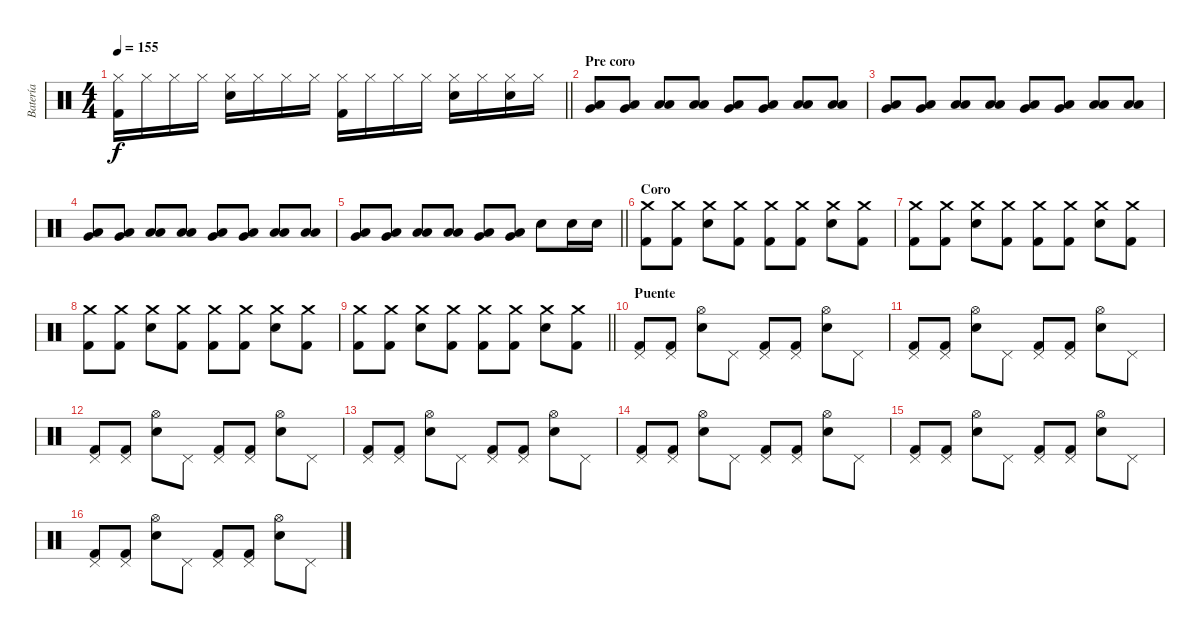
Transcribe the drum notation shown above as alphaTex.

\track ("Batería" "Batería") {instrument percussion}
\staff {score}
\articulation defaults
\ts (4 4)
\tempo 155
\clef neutral
\barLineRight lightlight
\ks c
("Hi-Hat (closed)" "Kick (hit) 2").16{dy f} "Hi-Hat (closed)".16 "Hi-Hat (closed)".16 "Hi-Hat (closed)".16 ("Hi-Hat (closed)" "Snare (hit) 2").16 "Hi-Hat (closed)".16 "Hi-Hat (closed)".16 "Hi-Hat (closed)".16 ("Hi-Hat (closed)" "Kick (hit) 2").16 "Hi-Hat (closed)".16 "Hi-Hat (closed)".16 "Hi-Hat (closed)".16 ("Hi-Hat (closed)" "Snare (hit) 2").16 "Hi-Hat (closed)".16 ("Hi-Hat (closed)" "Snare (hit) 2").16 "Hi-Hat (closed)".16 |
\section ("" "Pre coro")
("Very Low Tom (hit)" "Low Floor Tom (hit)").8 ("Very Low Tom (hit)" "Low Floor Tom (hit)").8 ("Low Tom (hit)" "Low Floor Tom (hit)").8 ("Low Tom (hit)" "Low Floor Tom (hit)").8 ("Very Low Tom (hit)" "Low Floor Tom (hit)").8 ("Very Low Tom (hit)" "Low Floor Tom (hit)").8 ("Low Tom (hit)" "Low Floor Tom (hit)").8 ("Low Tom (hit)" "Low Floor Tom (hit)").8 |
("Very Low Tom (hit)" "Low Floor Tom (hit)").8 ("Very Low Tom (hit)" "Low Floor Tom (hit)").8 ("Low Tom (hit)" "Low Floor Tom (hit)").8 ("Low Tom (hit)" "Low Floor Tom (hit)").8 ("Very Low Tom (hit)" "Low Floor Tom (hit)").8 ("Very Low Tom (hit)" "Low Floor Tom (hit)").8 ("Low Tom (hit)" "Low Floor Tom (hit)").8 ("Low Tom (hit)" "Low Floor Tom (hit)").8 |
("Very Low Tom (hit)" "Low Floor Tom (hit)").8 ("Very Low Tom (hit)" "Low Floor Tom (hit)").8 ("Low Tom (hit)" "Low Floor Tom (hit)").8 ("Low Tom (hit)" "Low Floor Tom (hit)").8 ("Very Low Tom (hit)" "Low Floor Tom (hit)").8 ("Very Low Tom (hit)" "Low Floor Tom (hit)").8 ("Low Tom (hit)" "Low Floor Tom (hit)").8 ("Low Tom (hit)" "Low Floor Tom (hit)").8 |
\barLineRight lightlight
("Very Low Tom (hit)" "Low Floor Tom (hit)").8 ("Very Low Tom (hit)" "Low Floor Tom (hit)").8 ("Low Tom (hit)" "Low Floor Tom (hit)").8 ("Low Tom (hit)" "Low Floor Tom (hit)").8 ("Very Low Tom (hit)" "Low Floor Tom (hit)").8 ("Very Low Tom (hit)" "Low Floor Tom (hit)").8 "Snare (hit) 2".8 "Snare (hit) 2".16 "Snare (hit) 2".16 |
\section ("" "Coro")
("Crash medium (hit)" "Kick (hit) 2").8 ("Crash medium (hit)" "Kick (hit) 2").8 ("Crash medium (hit)" "Snare (hit) 2").8 ("Crash medium (hit)" "Kick (hit) 2").8 ("Crash medium (hit)" "Kick (hit) 2").8 ("Crash medium (hit)" "Kick (hit) 2").8 ("Crash medium (hit)" "Snare (hit) 2").8 ("Crash medium (hit)" "Kick (hit) 2").8 |
("Crash medium (hit)" "Kick (hit) 2").8 ("Crash medium (hit)" "Kick (hit) 2").8 ("Crash medium (hit)" "Snare (hit) 2").8 ("Crash medium (hit)" "Kick (hit) 2").8 ("Crash medium (hit)" "Kick (hit) 2").8 ("Crash medium (hit)" "Kick (hit) 2").8 ("Crash medium (hit)" "Snare (hit) 2").8 ("Crash medium (hit)" "Kick (hit) 2").8 |
("Crash medium (hit)" "Kick (hit) 2").8 ("Crash medium (hit)" "Kick (hit) 2").8 ("Crash medium (hit)" "Snare (hit) 2").8 ("Crash medium (hit)" "Kick (hit) 2").8 ("Crash medium (hit)" "Kick (hit) 2").8 ("Crash medium (hit)" "Kick (hit) 2").8 ("Crash medium (hit)" "Snare (hit) 2").8 ("Crash medium (hit)" "Kick (hit) 2").8 |
\barLineRight lightlight
("Crash medium (hit)" "Kick (hit) 2").8 ("Crash medium (hit)" "Kick (hit) 2").8 ("Crash medium (hit)" "Snare (hit) 2").8 ("Crash medium (hit)" "Kick (hit) 2").8 ("Crash medium (hit)" "Kick (hit) 2").8 ("Crash medium (hit)" "Kick (hit) 2").8 ("Crash medium (hit)" "Snare (hit) 2").8 ("Crash medium (hit)" "Kick (hit) 2").8 |
\section ("" "Puente")
("Pedal Hi-Hat (hit)" "Kick (hit) 2").8 ("Pedal Hi-Hat (hit)" "Kick (hit) 2").8 ("Hi-Hat (open)" "Snare (hit) 2").8 "Pedal Hi-Hat (hit)".8 ("Pedal Hi-Hat (hit)" "Kick (hit) 2").8 ("Pedal Hi-Hat (hit)" "Kick (hit) 2").8 ("Hi-Hat (open)" "Snare (hit) 2").8 "Pedal Hi-Hat (hit)".8 |
("Pedal Hi-Hat (hit)" "Kick (hit) 2").8 ("Pedal Hi-Hat (hit)" "Kick (hit) 2").8 ("Hi-Hat (open)" "Snare (hit) 2").8 "Pedal Hi-Hat (hit)".8 ("Pedal Hi-Hat (hit)" "Kick (hit) 2").8 ("Pedal Hi-Hat (hit)" "Kick (hit) 2").8 ("Hi-Hat (open)" "Snare (hit) 2").8 "Pedal Hi-Hat (hit)".8 |
("Pedal Hi-Hat (hit)" "Kick (hit) 2").8 ("Pedal Hi-Hat (hit)" "Kick (hit) 2").8 ("Hi-Hat (open)" "Snare (hit) 2").8 "Pedal Hi-Hat (hit)".8 ("Pedal Hi-Hat (hit)" "Kick (hit) 2").8 ("Pedal Hi-Hat (hit)" "Kick (hit) 2").8 ("Hi-Hat (open)" "Snare (hit) 2").8 "Pedal Hi-Hat (hit)".8 |
("Pedal Hi-Hat (hit)" "Kick (hit) 2").8 ("Pedal Hi-Hat (hit)" "Kick (hit) 2").8 ("Hi-Hat (open)" "Snare (hit) 2").8 "Pedal Hi-Hat (hit)".8 ("Pedal Hi-Hat (hit)" "Kick (hit) 2").8 ("Pedal Hi-Hat (hit)" "Kick (hit) 2").8 ("Hi-Hat (open)" "Snare (hit) 2").8 "Pedal Hi-Hat (hit)".8 |
("Pedal Hi-Hat (hit)" "Kick (hit) 2").8 ("Pedal Hi-Hat (hit)" "Kick (hit) 2").8 ("Hi-Hat (open)" "Snare (hit) 2").8 "Pedal Hi-Hat (hit)".8 ("Pedal Hi-Hat (hit)" "Kick (hit) 2").8 ("Pedal Hi-Hat (hit)" "Kick (hit) 2").8 ("Hi-Hat (open)" "Snare (hit) 2").8 "Pedal Hi-Hat (hit)".8 |
("Pedal Hi-Hat (hit)" "Kick (hit) 2").8 ("Pedal Hi-Hat (hit)" "Kick (hit) 2").8 ("Hi-Hat (open)" "Snare (hit) 2").8 "Pedal Hi-Hat (hit)".8 ("Pedal Hi-Hat (hit)" "Kick (hit) 2").8 ("Pedal Hi-Hat (hit)" "Kick (hit) 2").8 ("Hi-Hat (open)" "Snare (hit) 2").8 "Pedal Hi-Hat (hit)".8 |
("Pedal Hi-Hat (hit)" "Kick (hit) 2").8 ("Pedal Hi-Hat (hit)" "Kick (hit) 2").8 ("Hi-Hat (open)" "Snare (hit) 2").8 "Pedal Hi-Hat (hit)".8 ("Pedal Hi-Hat (hit)" "Kick (hit) 2").8 ("Pedal Hi-Hat (hit)" "Kick (hit) 2").8 ("Hi-Hat (open)" "Snare (hit) 2").8 "Pedal Hi-Hat (hit)".8
